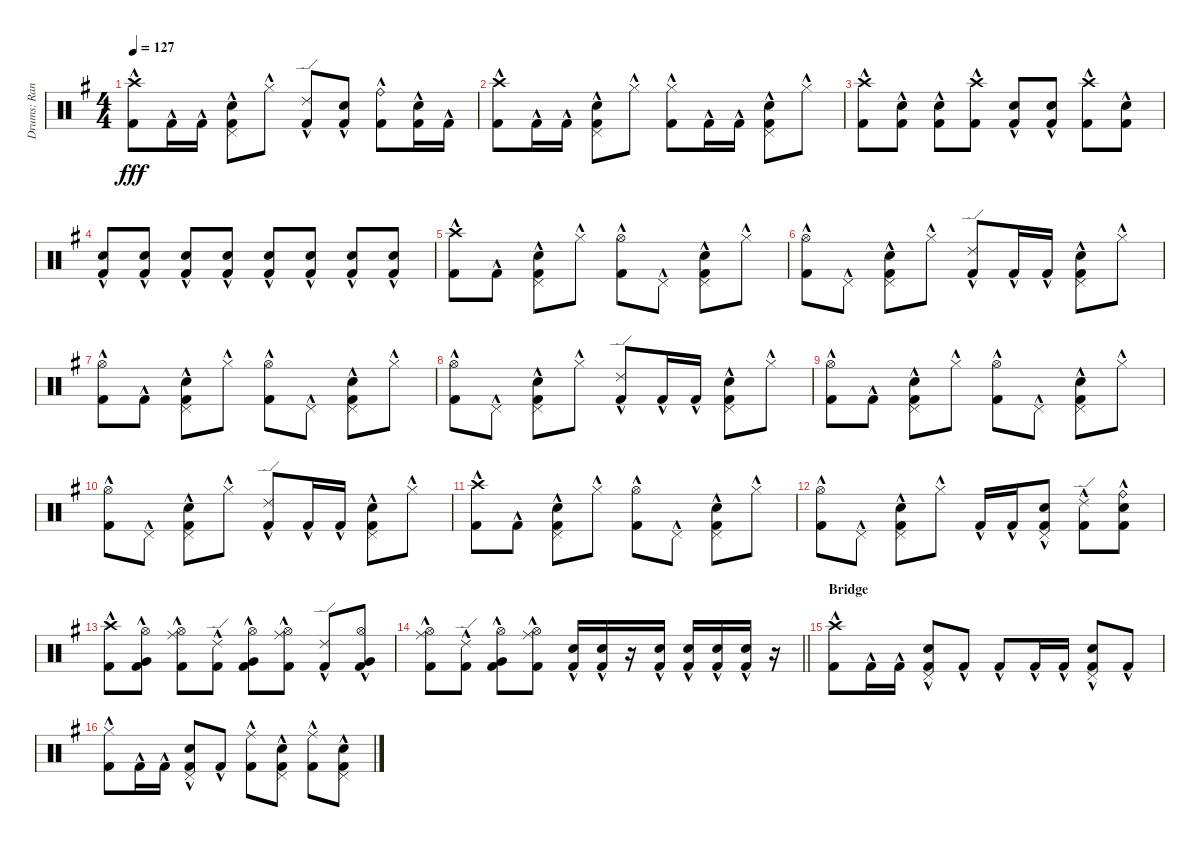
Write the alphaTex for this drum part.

\track ("Drums: Randy" "Drums: Ran") {instrument percussion}
\staff {score}
\articulation defaults
\ts (4 4)
\tempo 127
\clef neutral
\ks g
("Crash high (hit)"{hac} "Kick (hit) 2"{hac}).8{dy fff} "Kick (hit) 2"{hac}.16 "Kick (hit) 2"{hac}.16 ("Pedal Hi-Hat (hit)"{hac} "Snare (hit) 2"{hac} "Kick (hit) 2"{hac}).8 "Hi-Hat (closed)"{hac}.8 ("Ride (edge) 2"{hac} "Kick (hit) 2"{hac}).8 ("Snare (hit) 2"{hac} "Kick (hit) 2"{hac}).8 ("Ride (bell)"{hac} "Kick (hit) 2"{hac}).8 ("Snare (hit) 2"{hac} "Kick (hit) 2"{hac}).16 "Kick (hit) 2"{hac}.16 |
("Crash high (hit)"{hac} "Kick (hit) 2"{hac}).8 "Kick (hit) 2"{hac}.16 "Kick (hit) 2"{hac}.16 ("Pedal Hi-Hat (hit)"{hac} "Snare (hit) 2"{hac} "Kick (hit) 2"{hac}).8 "Hi-Hat (closed)"{hac}.8 ("Hi-Hat (closed)"{hac} "Kick (hit) 2"{hac}).8 "Kick (hit) 2"{hac}.16 "Kick (hit) 2"{hac}.16 ("Pedal Hi-Hat (hit)"{hac} "Snare (hit) 2"{hac} "Kick (hit) 2"{hac}).8 "Hi-Hat (closed)"{hac}.8 |
("Crash high (hit)"{hac} "Kick (hit) 2"{hac}).8 ("Snare (hit) 2"{hac} "Kick (hit) 2"{hac}).8 ("Snare (hit) 2"{hac} "Kick (hit) 2"{hac}).8 ("Crash high (hit)"{hac} "Kick (hit) 2"{hac}).8 ("Snare (hit) 2"{hac} "Kick (hit) 2"{hac}).8 ("Snare (hit) 2"{hac} "Kick (hit) 2"{hac}).8 ("Crash high (hit)"{hac} "Kick (hit) 2"{hac}).8 ("Snare (hit) 2"{hac} "Kick (hit) 2"{hac}).8 |
("Snare (hit) 2"{hac} "Kick (hit) 2"{hac}).8 ("Snare (hit) 2"{hac} "Kick (hit) 2"{hac}).8 ("Snare (hit) 2"{hac} "Kick (hit) 2"{hac}).8 ("Snare (hit) 2"{hac} "Kick (hit) 2"{hac}).8 ("Snare (hit) 2"{hac} "Kick (hit) 2"{hac}).8 ("Snare (hit) 2"{hac} "Kick (hit) 2"{hac}).8 ("Snare (hit) 2"{hac} "Kick (hit) 2"{hac}).8 ("Snare (hit) 2"{hac} "Kick (hit) 2"{hac}).8 |
("Crash high (hit)"{hac} "Kick (hit) 2"{hac}).8 "Kick (hit) 2"{hac}.8 ("Pedal Hi-Hat (hit)"{hac} "Snare (hit) 2"{hac} "Kick (hit) 2"{hac}).8 "Hi-Hat (closed)"{hac}.8 ("Hi-Hat (open)"{hac} "Kick (hit) 2"{hac}).8 "Pedal Hi-Hat (hit)"{hac}.8 ("Pedal Hi-Hat (hit)"{hac} "Snare (hit) 2"{hac} "Kick (hit) 2"{hac}).8 "Hi-Hat (closed)"{hac}.8 |
("Hi-Hat (open)"{hac} "Kick (hit) 2"{hac}).8 "Pedal Hi-Hat (hit)"{hac}.8 ("Pedal Hi-Hat (hit)"{hac} "Snare (hit) 2"{hac} "Kick (hit) 2"{hac}).8 "Hi-Hat (closed)"{hac}.8 ("Ride (edge) 2"{hac} "Kick (hit) 2"{hac}).8 "Kick (hit) 2"{hac}.16 "Kick (hit) 2"{hac}.16 ("Pedal Hi-Hat (hit)"{hac} "Snare (hit) 2"{hac} "Kick (hit) 2"{hac}).8 "Hi-Hat (closed)"{hac}.8 |
("Hi-Hat (open)"{hac} "Kick (hit) 2"{hac}).8 "Kick (hit) 2"{hac}.8 ("Pedal Hi-Hat (hit)"{hac} "Snare (hit) 2"{hac} "Kick (hit) 2"{hac}).8 "Hi-Hat (closed)"{hac}.8 ("Hi-Hat (open)"{hac} "Kick (hit) 2"{hac}).8 "Pedal Hi-Hat (hit)"{hac}.8 ("Pedal Hi-Hat (hit)"{hac} "Snare (hit) 2"{hac} "Kick (hit) 2"{hac}).8 "Hi-Hat (closed)"{hac}.8 |
("Hi-Hat (open)"{hac} "Kick (hit) 2"{hac}).8 "Pedal Hi-Hat (hit)"{hac}.8 ("Pedal Hi-Hat (hit)"{hac} "Snare (hit) 2"{hac} "Kick (hit) 2"{hac}).8 "Hi-Hat (closed)"{hac}.8 ("Ride (edge) 2"{hac} "Kick (hit) 2"{hac}).8 "Kick (hit) 2"{hac}.16 "Kick (hit) 2"{hac}.16 ("Pedal Hi-Hat (hit)"{hac} "Snare (hit) 2"{hac} "Kick (hit) 2"{hac}).8 "Hi-Hat (closed)"{hac}.8 |
("Hi-Hat (open)"{hac} "Kick (hit) 2"{hac}).8 "Kick (hit) 2"{hac}.8 ("Pedal Hi-Hat (hit)"{hac} "Snare (hit) 2"{hac} "Kick (hit) 2"{hac}).8 "Hi-Hat (closed)"{hac}.8 ("Hi-Hat (open)"{hac} "Kick (hit) 2"{hac}).8 "Pedal Hi-Hat (hit)"{hac}.8 ("Pedal Hi-Hat (hit)"{hac} "Snare (hit) 2"{hac} "Kick (hit) 2"{hac}).8 "Hi-Hat (closed)"{hac}.8 |
("Hi-Hat (open)"{hac} "Kick (hit) 2"{hac}).8 "Pedal Hi-Hat (hit)"{hac}.8 ("Pedal Hi-Hat (hit)"{hac} "Snare (hit) 2"{hac} "Kick (hit) 2"{hac}).8 "Hi-Hat (closed)"{hac}.8 ("Ride (edge) 2"{hac} "Kick (hit) 2"{hac}).8 "Kick (hit) 2"{hac}.16 "Kick (hit) 2"{hac}.16 ("Pedal Hi-Hat (hit)"{hac} "Snare (hit) 2"{hac} "Kick (hit) 2"{hac}).8 "Hi-Hat (closed)"{hac}.8 |
("Crash high (hit)"{hac} "Kick (hit) 2"{hac}).8 "Kick (hit) 2"{hac}.8 ("Pedal Hi-Hat (hit)"{hac} "Snare (hit) 2"{hac} "Kick (hit) 2"{hac}).8 "Hi-Hat (closed)"{hac}.8 ("Hi-Hat (open)"{hac} "Kick (hit) 2"{hac}).8 "Pedal Hi-Hat (hit)"{hac}.8 ("Pedal Hi-Hat (hit)"{hac} "Snare (hit) 2"{hac} "Kick (hit) 2"{hac}).8 "Hi-Hat (closed)"{hac}.8 |
("Hi-Hat (open)"{hac} "Kick (hit) 2"{hac}).8 "Pedal Hi-Hat (hit)"{hac}.8 ("Pedal Hi-Hat (hit)"{hac} "Snare (hit) 2"{hac} "Kick (hit) 2"{hac}).8 "Hi-Hat (closed)"{hac}.8 "Kick (hit) 2"{hac}.16 "Kick (hit) 2"{hac}.16 ("Pedal Hi-Hat (hit)"{hac} "Snare (hit) 2"{hac} "Kick (hit) 2"{hac}).8 ("Ride (edge) 2"{hac} "Kick (hit) 2"{hac}).8 ("Ride (bell)"{hac} "Snare (hit) 2"{hac} "Kick (hit) 2"{hac}).8 |
("Crash high (hit)"{hac} "Kick (hit) 2"{hac}).8 ("Hi-Hat (open)"{hac} "Very Low Tom (hit)"{hac} "Kick (hit) 2"{hac}).8 ("Hi-Hat (open)"{hac} "Ride (middle)"{hac} "Kick (hit) 2"{hac}).8 ("Ride (edge) 2"{hac} "Kick (hit) 2"{hac}).8 ("Hi-Hat (open)"{hac} "Very Low Tom (hit)"{hac} "Kick (hit) 2"{hac}).8 ("Hi-Hat (open)"{hac} "Ride (middle)"{hac} "Kick (hit) 2"{hac}).8 ("Ride (edge) 2"{hac} "Kick (hit) 2"{hac}).8 ("Hi-Hat (open)"{hac} "Very Low Tom (hit)"{hac} "Kick (hit) 2"{hac}).8 |
\barLineRight lightlight
("Hi-Hat (open)"{hac} "Ride (middle)"{hac} "Kick (hit) 2"{hac}).8 ("Ride (edge) 2"{hac} "Kick (hit) 2"{hac}).8 ("Hi-Hat (open)"{hac} "Very Low Tom (hit)"{hac} "Kick (hit) 2"{hac}).8 ("Hi-Hat (open)"{hac} "Ride (middle)"{hac} "Kick (hit) 2"{hac}).8 ("Snare (hit) 2"{hac} "Kick (hit) 2"{hac}).16 ("Snare (hit) 2"{hac} "Kick (hit) 2"{hac}).16 r.16 ("Snare (hit) 2"{hac} "Kick (hit) 2"{hac}).16 ("Snare (hit) 2"{hac} "Kick (hit) 2"{hac}).16 ("Snare (hit) 2"{hac} "Kick (hit) 2"{hac}).16 ("Snare (hit) 2"{hac} "Kick (hit) 2"{hac}).16 r.16 |
\section ("" "Bridge")
("Crash high (hit)"{hac} "Kick (hit) 2"{hac}).8 "Kick (hit) 2"{hac}.16 "Kick (hit) 2"{hac}.16 ("Pedal Hi-Hat (hit)"{hac} "Snare (hit) 2"{hac} "Kick (hit) 2"{hac}).8 "Kick (hit) 2"{hac}.8 "Kick (hit) 2"{hac}.8 "Kick (hit) 2"{hac}.16 "Kick (hit) 2"{hac}.16 ("Pedal Hi-Hat (hit)"{hac} "Snare (hit) 2"{hac} "Kick (hit) 2"{hac}).8 "Kick (hit) 2"{hac}.8 |
("Hi-Hat (closed)"{hac} "Kick (hit) 2"{hac}).8 "Kick (hit) 2"{hac}.16 "Kick (hit) 2"{hac}.16 ("Pedal Hi-Hat (hit)"{hac} "Snare (hit) 2"{hac} "Kick (hit) 2"{hac}).8 "Kick (hit) 2"{hac}.8 ("Ride (middle)"{hac} "Kick (hit) 2"{hac}).8 ("Pedal Hi-Hat (hit)"{hac} "Snare (hit) 2"{hac} "Kick (hit) 2"{hac}).8 ("Ride (middle)"{hac} "Kick (hit) 2"{hac}).8 ("Pedal Hi-Hat (hit)"{hac} "Snare (hit) 2"{hac} "Kick (hit) 2"{hac}).8
